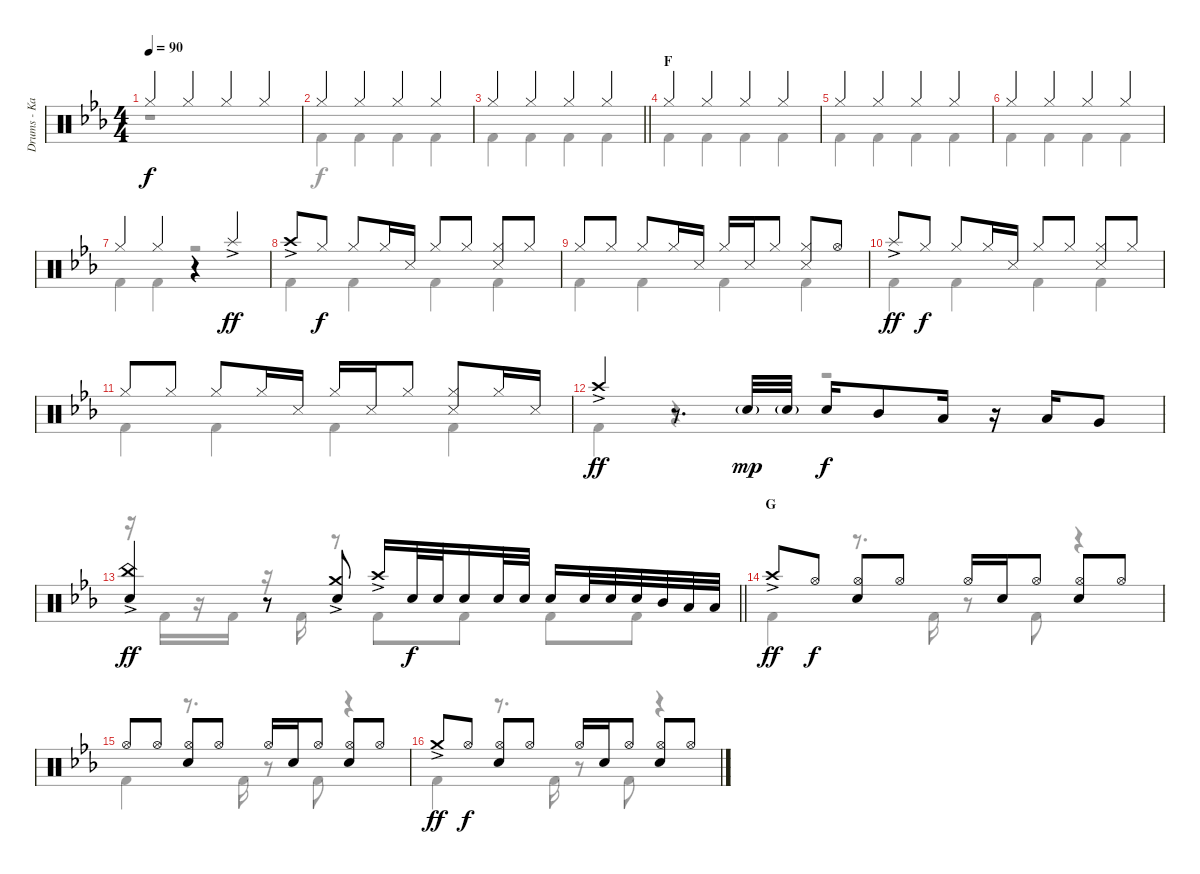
\track ("Drums - Kai" "Drums - Ka") {instrument percussion}
\staff {score}
\articulation defaults
\voice
\ts (4 4)
\tempo 90
\clef neutral
\ks eb "Hi-Hat (closed)".4{dy f} "Hi-Hat (closed)".4 "Hi-Hat (closed)".4 "Hi-Hat (closed)".4
|
"Hi-Hat (closed)".4 "Hi-Hat (closed)".4 "Hi-Hat (closed)".4 "Hi-Hat (closed)".4 |
\barLineRight lightlight "Hi-Hat (closed)".4 "Hi-Hat (closed)".4 "Hi-Hat (closed)".4 "Hi-Hat (closed)".4
|
\section ("" "F")
"Hi-Hat (closed)".4 "Hi-Hat (closed)".4 "Hi-Hat (closed)".4 "Hi-Hat (closed)".4 |
"Hi-Hat (closed)".4 "Hi-Hat (closed)".4 "Hi-Hat (closed)".4 "Hi-Hat (closed)".4 |
"Hi-Hat (closed)".4 "Hi-Hat (closed)".4 "Hi-Hat (closed)".4 "Hi-Hat (closed)".4 |
"Hi-Hat (closed)".4 "Hi-Hat (closed)".4 r.4 "Splash (hit)"{ac}.4{dy ff} |
"Crash high (hit)"{ac}.8 "Hi-Hat (closed)".8{dy f} "Hi-Hat (closed)".8 "Hi-Hat (closed)".16 "Snare (side stick) 3".16 "Hi-Hat (closed)".8 "Hi-Hat (closed)".8 ("Hi-Hat (closed)" "Snare (side stick) 3").8 "Hi-Hat (closed)".8 |
"Hi-Hat (closed)".8 "Hi-Hat (closed)".8 "Hi-Hat (closed)".8 "Hi-Hat (closed)".16 "Snare (side stick) 3".16 "Hi-Hat (closed)".16 "Snare (side stick) 3".16 "Hi-Hat (closed)".8 ("Hi-Hat (closed)" "Snare (side stick) 3").8 "Hi-Hat (open)".8 |
"Splash (hit)"{ac}.8{dy ff} "Hi-Hat (closed)".8{dy f} "Hi-Hat (closed)".8 "Hi-Hat (closed)".16 "Snare (side stick) 3".16 "Hi-Hat (closed)".8 "Hi-Hat (closed)".8 ("Hi-Hat (closed)" "Snare (side stick) 3").8 "Hi-Hat (closed)".8 |
"Hi-Hat (closed)".8 "Hi-Hat (closed)".8 "Hi-Hat (closed)".8 "Hi-Hat (closed)".16 "Snare (side stick) 3".16 "Hi-Hat (closed)".16 "Snare (side stick) 3".16 "Hi-Hat (closed)".8 ("Hi-Hat (closed)" "Snare (side stick) 3").8 "Hi-Hat (closed)".16 "Snare (side stick) 3".16 |
"Crash high (hit)"{ac}.4{dy ff} r.8{d} "Snare (hit) 2"{g}.32{dy mp} "Snare (hit) 2"{g}.32 "Snare (hit) 2".16{dy f} "Mid Tom (hit)".8 "Low Tom (hit)".16 r.16 "Low Tom (hit)".16 "Very Low Tom (hit)".8 |
\barLineRight lightlight
("China (hit)"{ac} "Snare (hit) 2").4{dy ff} r.8 ("Crash medium (hit)"{ac} "Snare (hit) 2").8 "Crash high (hit)"{ac}.16 "Snare (hit) 2".32{dy f} "Snare (hit) 2".32 "Snare (hit) 2".16 "Snare (hit) 2".32 "Snare (hit) 2".32 "Snare (hit) 2".16 "Snare (hit) 2".32 "Snare (hit) 2".32 "Snare (hit) 2".32 "Mid Tom (hit)".32 "Low Tom (hit)".32 "Low Tom (hit)".32 |
\section ("" "G")
"Crash high (hit)"{ac}.8{dy ff} "Hi-Hat (open)".8{dy f} ("Hi-Hat (open)" "Snare (hit) 2").8 "Hi-Hat (open)".8 "Hi-Hat (open)".16 "Snare (hit) 2".16 "Hi-Hat (open)".8 ("Hi-Hat (open)" "Snare (hit) 2").8 "Hi-Hat (open)".8 |
"Hi-Hat (open)".8 "Hi-Hat (open)".8 ("Hi-Hat (open)" "Snare (hit) 2").8 "Hi-Hat (open)".8 "Hi-Hat (open)".16 "Snare (hit) 2".16 "Hi-Hat (open)".8 ("Hi-Hat (open)" "Snare (hit) 2").8 "Hi-Hat (open)".8 |
"Crash medium (hit)"{ac}.8{dy ff} "Hi-Hat (open)".8{dy f} ("Hi-Hat (open)" "Snare (hit) 2").8 "Hi-Hat (open)".8 "Hi-Hat (open)".16 "Snare (hit) 2".16 "Hi-Hat (open)".8 ("Hi-Hat (open)" "Snare (hit) 2").8 "Hi-Hat (open)".8
\voice
\clef neutral
\ottava regular
\simile none
\ks eb
r.1{dy f} |
"Kick (hit) 2".4 "Kick (hit) 2".4 "Kick (hit) 2".4 "Kick (hit) 2".4 |
\barLineRight lightlight "Kick (hit) 2".4 "Kick (hit) 2".4 "Kick (hit) 2".4 "Kick (hit) 2".4
|
"Kick (hit) 2".4 "Kick (hit) 2".4 "Kick (hit) 2".4 "Kick (hit) 2".4 |
"Kick (hit) 2".4 "Kick (hit) 2".4 "Kick (hit) 2".4 "Kick (hit) 2".4 |
"Kick (hit) 2".4 "Kick (hit) 2".4 "Kick (hit) 2".4 "Kick (hit) 2".4 |
"Kick (hit) 2".4 "Kick (hit) 2".4 r.2 |
"Kick (hit) 2".4 "Kick (hit) 2".4 "Kick (hit) 2".4 "Kick (hit) 2".4 |
"Kick (hit) 2".4 "Kick (hit) 2".4 "Kick (hit) 2".4 "Kick (hit) 2".4 |
"Kick (hit) 2".4 "Kick (hit) 2".4 "Kick (hit) 2".4 "Kick (hit) 2".4 |
"Kick (hit) 2".4 "Kick (hit) 2".4 "Kick (hit) 2".4 "Kick (hit) 2".4 |
"Kick (hit) 2".4 r.4 r.2 |
\barLineRight lightlight
r.16 "Kick (hit) 2".16 r.16 "Kick (hit) 2".16 r.16 "Kick (hit) 2".16 r.8 "Kick (hit) 2".8 "Kick (hit) 2".8 "Kick (hit) 2".8 "Kick (hit) 2".8 |
"Kick (hit) 2".4 r.8{d} "Kick (hit) 2".16 r.8 "Kick (hit) 2".8 r.4 |
"Kick (hit) 2".4 r.8{d} "Kick (hit) 2".16 r.8 "Kick (hit) 2".8 r.4 |
"Kick (hit) 2".4 r.8{d} "Kick (hit) 2".16 r.8 "Kick (hit) 2".8 r.4
